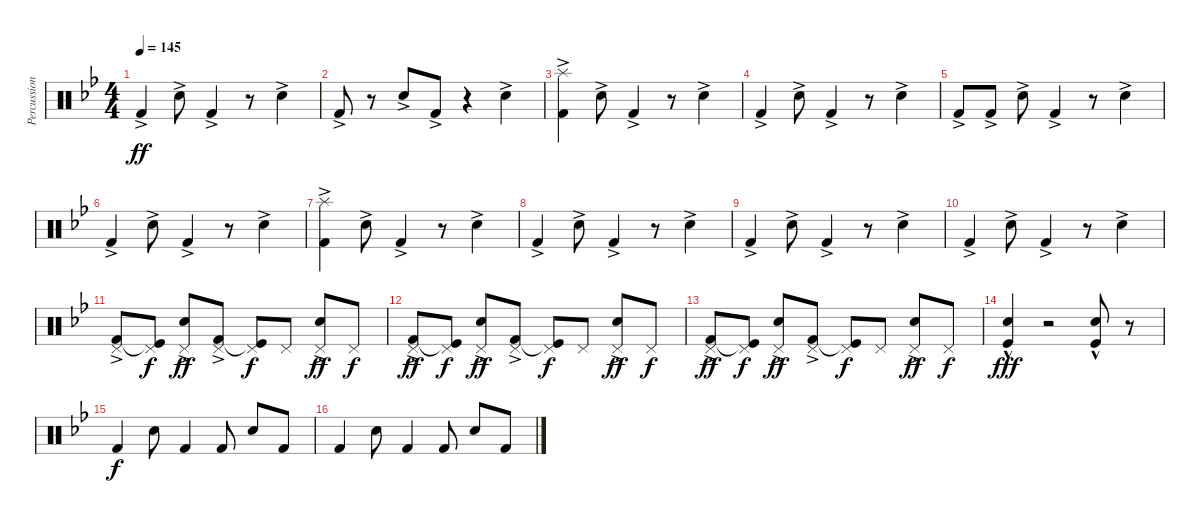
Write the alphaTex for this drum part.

\track ("Percussion" "Percussion") {instrument percussion}
\staff {score}
\articulation defaults
\ts (4 4)
\tempo 145
\clef neutral
\ks gminor "Kick (hit) 2"{ac}.4{dy ff} "Hand Clap (hit)"{ac}.8 "Kick (hit) 2"{ac}.4
r.8 "Hand Clap (hit)"{ac}.4 |
"Kick (hit) 2"{ac}.8 r.8 "Hand Clap (hit)"{ac}.8 "Kick (hit) 2"{ac}.8 r.4 "Hand Clap (hit)"{ac}.4 |
("Splash (hit)" "Kick (hit) 2"{ac}).4 "Hand Clap (hit)"{ac}.8 "Kick (hit) 2"{ac}.4 r.8 "Hand Clap (hit)"{ac}.4 |
"Kick (hit) 2"{ac}.4 "Hand Clap (hit)"{ac}.8 "Kick (hit) 2"{ac}.4 r.8 "Hand Clap (hit)"{ac}.4 |
"Kick (hit) 2"{ac}.8 "Kick (hit) 2"{ac}.8 "Hand Clap (hit)"{ac}.8 "Kick (hit) 2"{ac}.4 r.8 "Hand Clap (hit)"{ac}.4 |
"Kick (hit) 2"{ac}.4 "Hand Clap (hit)"{ac}.8 "Kick (hit) 2"{ac}.4 r.8 "Hand Clap (hit)"{ac}.4 |
("Splash (hit)" "Kick (hit) 2"{ac}).4 "Hand Clap (hit)"{ac}.8 "Kick (hit) 2"{ac}.4 r.8 "Hand Clap (hit)"{ac}.4 |
"Kick (hit) 2"{ac}.4 "Hand Clap (hit)"{ac}.8 "Kick (hit) 2"{ac}.4 r.8 "Hand Clap (hit)"{ac}.4 |
"Kick (hit) 2"{ac}.4 "Hand Clap (hit)"{ac}.8 "Kick (hit) 2"{ac}.4 r.8 "Hand Clap (hit)"{ac}.4 |
"Kick (hit) 2"{ac}.4 "Hand Clap (hit)"{ac}.8 "Kick (hit) 2"{ac}.4 r.8 "Hand Clap (hit)"{ac}.4 |
("Pedal Hi-Hat (hit)" "Kick (hit) 2"{ac}).8 ("Pedal Hi-Hat (hit)" "Kick (hit)"{t}).8{dy f} ("Pedal Hi-Hat (hit)" "Hand Clap (hit)"{ac}).8{dy ff} ("Pedal Hi-Hat (hit)" "Kick (hit) 2"{ac}).8 ("Pedal Hi-Hat (hit)" "Kick (hit)"{t}).8{dy f} "Pedal Hi-Hat (hit)".8 ("Pedal Hi-Hat (hit)" "Hand Clap (hit)"{ac}).8{dy ff} "Pedal Hi-Hat (hit)".8{dy f} |
("Pedal Hi-Hat (hit)" "Kick (hit) 2"{ac}).8{dy ff} ("Pedal Hi-Hat (hit)" "Kick (hit)"{t}).8{dy f} ("Pedal Hi-Hat (hit)" "Hand Clap (hit)"{ac}).8{dy ff} ("Pedal Hi-Hat (hit)" "Kick (hit) 2"{ac}).8 ("Pedal Hi-Hat (hit)" "Kick (hit)"{t}).8{dy f} "Pedal Hi-Hat (hit)".8 ("Pedal Hi-Hat (hit)" "Hand Clap (hit)"{ac}).8{dy ff} "Pedal Hi-Hat (hit)".8{dy f} |
("Pedal Hi-Hat (hit)" "Kick (hit) 2"{ac}).8{dy ff} ("Pedal Hi-Hat (hit)" "Kick (hit)"{t}).8{dy f} ("Pedal Hi-Hat (hit)" "Hand Clap (hit)"{ac}).8{dy ff} ("Pedal Hi-Hat (hit)" "Kick (hit) 2"{ac}).8 ("Pedal Hi-Hat (hit)" "Kick (hit)"{t}).8{dy f} "Pedal Hi-Hat (hit)".8 ("Pedal Hi-Hat (hit)" "Hand Clap (hit)"{ac}).8{dy ff} "Pedal Hi-Hat (hit)".8{dy f} |
("Electric Snare (hit)"{hac} "Kick (hit)").4{dy fff} r.2 ("Electric Snare (hit)"{hac} "Kick (hit)").8 r.8 |
"Kick (hit) 2".4{dy f} "Electric Snare (hit)".8 "Kick (hit) 2".4 "Kick (hit) 2".8 "Electric Snare (hit)".8 "Kick (hit) 2".8 |
"Kick (hit) 2".4 "Electric Snare (hit)".8 "Kick (hit) 2".4 "Kick (hit) 2".8 "Electric Snare (hit)".8 "Kick (hit) 2".8
